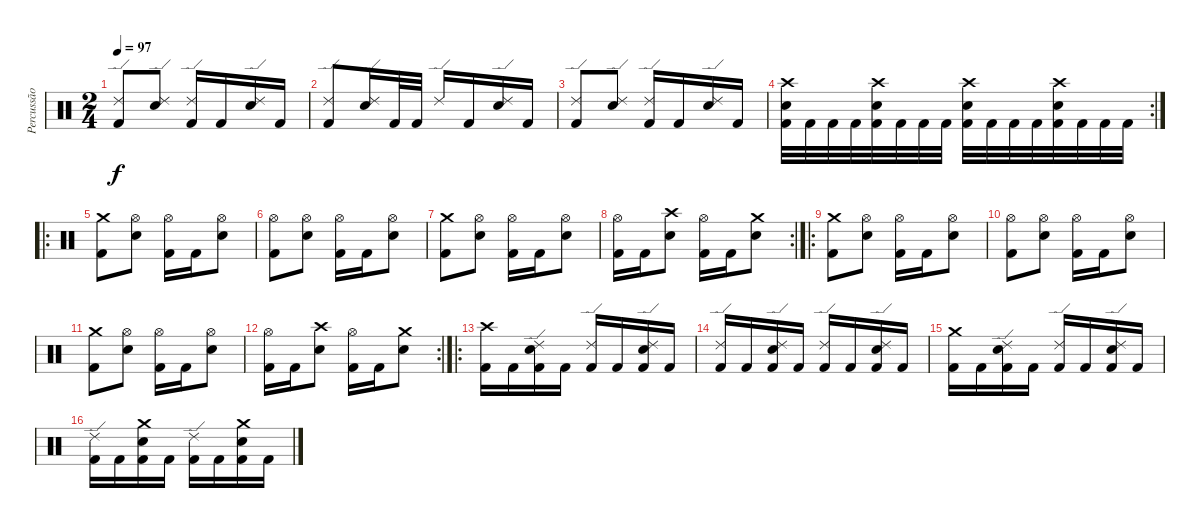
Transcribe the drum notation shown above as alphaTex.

\track ("Percussão" "Percussão") {instrument percussion}
\staff {score}
\articulation defaults
\ts (2 4)
\tempo 97
\clef neutral
\ks c
("Ride (edge) 2" "Kick (hit) 2").8{dy f} ("Ride (edge) 2" "Snare (hit) 2").8 ("Ride (edge) 2" "Kick (hit) 2").16 "Kick (hit) 2".16 ("Ride (edge) 2" "Snare (hit) 2").16 "Kick (hit) 2".16 |
("Ride (edge) 2" "Kick (hit) 2").8 ("Ride (edge) 2" "Snare (hit) 2").16 "Kick (hit) 2".32 "Kick (hit) 2".32 "Ride (edge) 2".16 "Kick (hit) 2".16 ("Ride (edge) 2" "Snare (hit) 2").16 "Kick (hit) 2".16 |
("Ride (edge) 2" "Kick (hit) 2").8 ("Ride (edge) 2" "Snare (hit) 2").8 ("Ride (edge) 2" "Kick (hit) 2").16 "Kick (hit) 2".16 ("Ride (edge) 2" "Snare (hit) 2").16 "Kick (hit) 2".16 |
\rc 2
("Crash high (hit)" "Snare (hit) 2" "Kick (hit) 2").32 "Kick (hit) 2".32 "Kick (hit) 2".32 "Kick (hit) 2".32 ("Crash high (hit)" "Snare (hit) 2" "Kick (hit) 2").32 "Kick (hit) 2".32 "Kick (hit) 2".32 "Kick (hit) 2".32 ("Crash high (hit)" "Snare (hit) 2" "Kick (hit) 2").32 "Kick (hit) 2".32 "Kick (hit) 2".32 "Kick (hit) 2".32 ("Crash high (hit)" "Snare (hit) 2" "Kick (hit) 2").32 "Kick (hit) 2".32 "Kick (hit) 2".32 "Kick (hit) 2".32 |
\ro
("Crash medium (hit)" "Kick (hit) 2").8 ("Hi-Hat (open)" "Snare (hit) 2").8 ("Hi-Hat (open)" "Kick (hit) 2").16 "Kick (hit) 2".16 ("Hi-Hat (open)" "Snare (hit) 2").8 |
("Hi-Hat (open)" "Kick (hit) 2").8 ("Hi-Hat (open)" "Snare (hit) 2").8 ("Hi-Hat (open)" "Kick (hit) 2").16 "Kick (hit) 2".16 ("Hi-Hat (open)" "Snare (hit) 2").8 |
("Crash medium (hit)" "Kick (hit) 2").8 ("Hi-Hat (open)" "Snare (hit) 2").8 ("Hi-Hat (open)" "Kick (hit) 2").16 "Kick (hit) 2".16 ("Hi-Hat (open)" "Snare (hit) 2").8 |
\rc 2
("Hi-Hat (open)" "Kick (hit) 2").16 "Kick (hit) 2".16 ("Crash high (hit)" "Snare (hit) 2").8 ("Hi-Hat (open)" "Kick (hit) 2").16 "Kick (hit) 2".16 ("Crash medium (hit)" "Snare (hit) 2").8 |
\ro
("Crash medium (hit)" "Kick (hit) 2").8 ("Hi-Hat (open)" "Snare (hit) 2").8 ("Hi-Hat (open)" "Kick (hit) 2").16 "Kick (hit) 2".16 ("Hi-Hat (open)" "Snare (hit) 2").8 |
("Hi-Hat (open)" "Kick (hit) 2").8 ("Hi-Hat (open)" "Snare (hit) 2").8 ("Hi-Hat (open)" "Kick (hit) 2").16 "Kick (hit) 2".16 ("Hi-Hat (open)" "Snare (hit) 2").8 |
("Crash medium (hit)" "Kick (hit) 2").8 ("Hi-Hat (open)" "Snare (hit) 2").8 ("Hi-Hat (open)" "Kick (hit) 2").16 "Kick (hit) 2".16 ("Hi-Hat (open)" "Snare (hit) 2").8 |
\rc 2
("Hi-Hat (open)" "Kick (hit) 2").16 "Kick (hit) 2".16 ("Crash high (hit)" "Snare (hit) 2").8 ("Hi-Hat (open)" "Kick (hit) 2").16 "Kick (hit) 2".16 ("Crash medium (hit)" "Snare (hit) 2").8 |
\ro
("Crash high (hit)" "Kick (hit) 2").16 "Kick (hit) 2".16 ("Ride (edge) 2" "Snare (hit) 2" "Kick (hit) 2").16 "Kick (hit) 2".16 ("Ride (edge) 2" "Kick (hit) 2").16 "Kick (hit) 2".16 ("Ride (edge) 2" "Snare (hit) 2" "Kick (hit) 2").16 "Kick (hit) 2".16 |
("Ride (edge) 2" "Kick (hit) 2").16 "Kick (hit) 2".16 ("Ride (edge) 2" "Snare (hit) 2" "Kick (hit) 2").16 "Kick (hit) 2".16 ("Ride (edge) 2" "Kick (hit) 2").16 "Kick (hit) 2".16 ("Ride (edge) 2" "Snare (hit) 2" "Kick (hit) 2").16 "Kick (hit) 2".16 |
("Crash medium (hit)" "Kick (hit) 2").16 "Kick (hit) 2".16 ("Ride (edge) 2" "Snare (hit) 2" "Kick (hit) 2").16 "Kick (hit) 2".16 ("Ride (edge) 2" "Kick (hit) 2").16 "Kick (hit) 2".16 ("Ride (edge) 2" "Snare (hit) 2" "Kick (hit) 2").16 "Kick (hit) 2".16 |
("Ride (edge) 2" "Kick (hit) 2").16 "Kick (hit) 2".16 ("Crash medium (hit)" "Snare (hit) 2" "Kick (hit) 2").16 "Kick (hit) 2".16 ("Ride (edge) 2" "Kick (hit) 2").16 "Kick (hit) 2".16 ("Crash medium (hit)" "Snare (hit) 2" "Kick (hit) 2").16 "Kick (hit) 2".16
